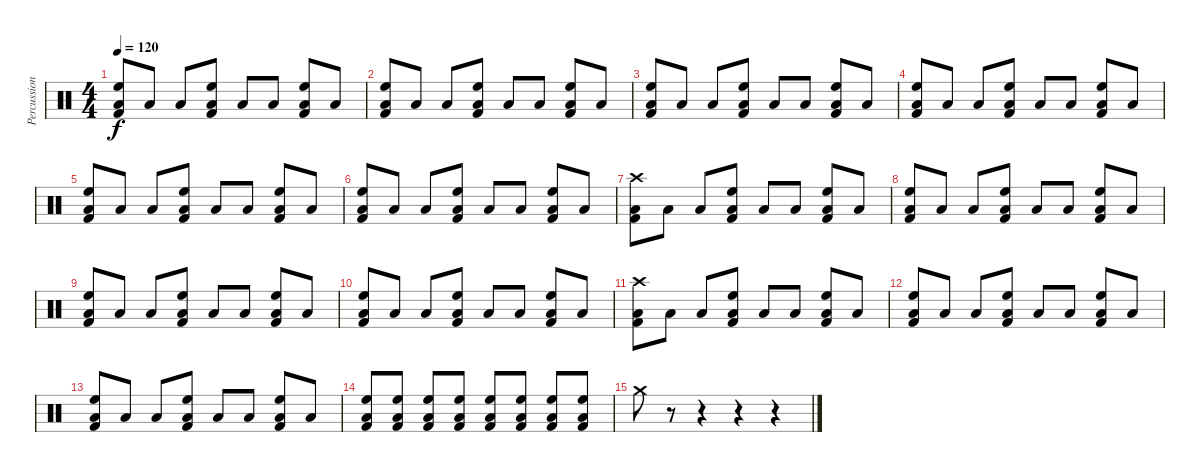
\track ("Percussion" "Percussion") {instrument percussion}
\staff {score}
\articulation defaults
\ts (4 4)
\tempo 120
\clef neutral
\ks c
("Low Floor Tom (hit)" "High Floor Tom (hit)" "Kick (hit) 2").8{dy f} "Low Floor Tom (hit)".8 "Low Floor Tom (hit)".8 ("Low Floor Tom (hit)" "High Floor Tom (hit)" "Kick (hit) 2").8 "Low Floor Tom (hit)".8 "Low Floor Tom (hit)".8 ("Low Floor Tom (hit)" "High Floor Tom (hit)" "Kick (hit) 2").8 "Low Floor Tom (hit)".8 |
("Low Floor Tom (hit)" "High Floor Tom (hit)" "Kick (hit) 2").8 "Low Floor Tom (hit)".8 "Low Floor Tom (hit)".8 ("Low Floor Tom (hit)" "High Floor Tom (hit)" "Kick (hit) 2").8 "Low Floor Tom (hit)".8 "Low Floor Tom (hit)".8 ("Low Floor Tom (hit)" "High Floor Tom (hit)" "Kick (hit) 2").8 "Low Floor Tom (hit)".8 |
("Low Floor Tom (hit)" "High Floor Tom (hit)" "Kick (hit) 2").8 "Low Floor Tom (hit)".8 "Low Floor Tom (hit)".8 ("Low Floor Tom (hit)" "High Floor Tom (hit)" "Kick (hit) 2").8 "Low Floor Tom (hit)".8 "Low Floor Tom (hit)".8 ("Low Floor Tom (hit)" "High Floor Tom (hit)" "Kick (hit) 2").8 "Low Floor Tom (hit)".8 |
("Low Floor Tom (hit)" "High Floor Tom (hit)" "Kick (hit) 2").8 "Low Floor Tom (hit)".8 "Low Floor Tom (hit)".8 ("Low Floor Tom (hit)" "High Floor Tom (hit)" "Kick (hit) 2").8 "Low Floor Tom (hit)".8 "Low Floor Tom (hit)".8 ("Low Floor Tom (hit)" "High Floor Tom (hit)" "Kick (hit) 2").8 "Low Floor Tom (hit)".8 |
("Low Floor Tom (hit)" "High Floor Tom (hit)" "Kick (hit) 2").8 "Low Floor Tom (hit)".8 "Low Floor Tom (hit)".8 ("Low Floor Tom (hit)" "High Floor Tom (hit)" "Kick (hit) 2").8 "Low Floor Tom (hit)".8 "Low Floor Tom (hit)".8 ("Low Floor Tom (hit)" "High Floor Tom (hit)" "Kick (hit) 2").8 "Low Floor Tom (hit)".8 |
("Low Floor Tom (hit)" "High Floor Tom (hit)" "Kick (hit) 2").8 "Low Floor Tom (hit)".8 "Low Floor Tom (hit)".8 ("Low Floor Tom (hit)" "High Floor Tom (hit)" "Kick (hit) 2").8 "Low Floor Tom (hit)".8 "Low Floor Tom (hit)".8 ("Low Floor Tom (hit)" "High Floor Tom (hit)" "Kick (hit) 2").8 "Low Floor Tom (hit)".8 |
("Low Floor Tom (hit)" "Crash high (hit)" "Kick (hit) 2").8 "Low Floor Tom (hit)".8 "Low Floor Tom (hit)".8 ("Low Floor Tom (hit)" "High Floor Tom (hit)" "Kick (hit) 2").8 "Low Floor Tom (hit)".8 "Low Floor Tom (hit)".8 ("Low Floor Tom (hit)" "High Floor Tom (hit)" "Kick (hit) 2").8 "Low Floor Tom (hit)".8 |
("Low Floor Tom (hit)" "High Floor Tom (hit)" "Kick (hit) 2").8 "Low Floor Tom (hit)".8 "Low Floor Tom (hit)".8 ("Low Floor Tom (hit)" "High Floor Tom (hit)" "Kick (hit) 2").8 "Low Floor Tom (hit)".8 "Low Floor Tom (hit)".8 ("Low Floor Tom (hit)" "High Floor Tom (hit)" "Kick (hit) 2").8 "Low Floor Tom (hit)".8 |
("Low Floor Tom (hit)" "High Floor Tom (hit)" "Kick (hit) 2").8 "Low Floor Tom (hit)".8 "Low Floor Tom (hit)".8 ("Low Floor Tom (hit)" "High Floor Tom (hit)" "Kick (hit) 2").8 "Low Floor Tom (hit)".8 "Low Floor Tom (hit)".8 ("Low Floor Tom (hit)" "High Floor Tom (hit)" "Kick (hit) 2").8 "Low Floor Tom (hit)".8 |
("Low Floor Tom (hit)" "High Floor Tom (hit)" "Kick (hit) 2").8 "Low Floor Tom (hit)".8 "Low Floor Tom (hit)".8 ("Low Floor Tom (hit)" "High Floor Tom (hit)" "Kick (hit) 2").8 "Low Floor Tom (hit)".8 "Low Floor Tom (hit)".8 ("Low Floor Tom (hit)" "High Floor Tom (hit)" "Kick (hit) 2").8 "Low Floor Tom (hit)".8 |
("Low Floor Tom (hit)" "Crash high (hit)" "Kick (hit) 2").8 "Low Floor Tom (hit)".8 "Low Floor Tom (hit)".8 ("Low Floor Tom (hit)" "High Floor Tom (hit)" "Kick (hit) 2").8 "Low Floor Tom (hit)".8 "Low Floor Tom (hit)".8 ("Low Floor Tom (hit)" "High Floor Tom (hit)" "Kick (hit) 2").8 "Low Floor Tom (hit)".8 |
("Low Floor Tom (hit)" "High Floor Tom (hit)" "Kick (hit) 2").8 "Low Floor Tom (hit)".8 "Low Floor Tom (hit)".8 ("Low Floor Tom (hit)" "High Floor Tom (hit)" "Kick (hit) 2").8 "Low Floor Tom (hit)".8 "Low Floor Tom (hit)".8 ("Low Floor Tom (hit)" "High Floor Tom (hit)" "Kick (hit) 2").8 "Low Floor Tom (hit)".8 |
("Low Floor Tom (hit)" "High Floor Tom (hit)" "Kick (hit) 2").8 "Low Floor Tom (hit)".8 "Low Floor Tom (hit)".8 ("Low Floor Tom (hit)" "High Floor Tom (hit)" "Kick (hit) 2").8 "Low Floor Tom (hit)".8 "Low Floor Tom (hit)".8 ("Low Floor Tom (hit)" "High Floor Tom (hit)" "Kick (hit) 2").8 "Low Floor Tom (hit)".8 |
("Low Floor Tom (hit)" "High Floor Tom (hit)" "Kick (hit) 2").8 ("Low Floor Tom (hit)" "High Floor Tom (hit)" "Kick (hit) 2").8 ("Low Floor Tom (hit)" "High Floor Tom (hit)" "Kick (hit) 2").8 ("Low Floor Tom (hit)" "High Floor Tom (hit)" "Kick (hit) 2").8 ("Low Floor Tom (hit)" "High Floor Tom (hit)" "Kick (hit) 2").8 ("Low Floor Tom (hit)" "High Floor Tom (hit)" "Kick (hit) 2").8 ("Low Floor Tom (hit)" "High Floor Tom (hit)" "Kick (hit) 2").8 ("Low Floor Tom (hit)" "High Floor Tom (hit)" "Kick (hit) 2").8 |
"Crash medium (hit)".8 r.8 r.4 r.4 r.4
